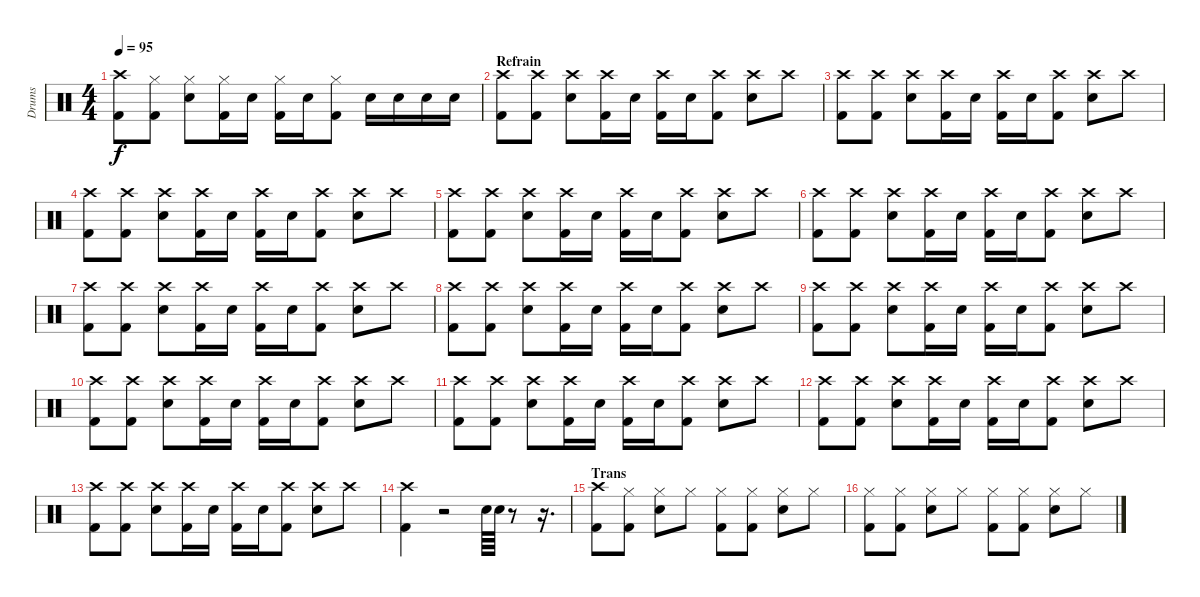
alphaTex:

\track ("Drums" "Drums") {instrument percussion}
\staff {score}
\articulation defaults
\ts (4 4)
\tempo 95
\clef neutral
\ks c
("Crash high (hit)" "Kick (hit) 2").8{dy f} ("Hi-Hat (closed)" "Kick (hit) 2").8 ("Hi-Hat (closed)" "Electric Snare (hit)").8 ("Hi-Hat (closed)" "Kick (hit) 2").16 "Electric Snare (hit)".16 ("Hi-Hat (closed)" "Kick (hit) 2").16 "Electric Snare (hit)".16 ("Hi-Hat (closed)" "Kick (hit) 2").8 "Electric Snare (hit)".16 "Electric Snare (hit)".16 "Electric Snare (hit)".16 "Electric Snare (hit)".16 |
\section ("" "Refrain")
("Crash high (hit)" "Kick (hit) 2").8 ("Crash high (hit)" "Kick (hit) 2").8 ("Crash high (hit)" "Electric Snare (hit)").8 ("Crash high (hit)" "Kick (hit) 2").16 "Electric Snare (hit)".16 ("Crash high (hit)" "Kick (hit) 2").16 "Electric Snare (hit)".16 ("Crash high (hit)" "Kick (hit) 2").8 ("Crash high (hit)" "Electric Snare (hit)").8 "Crash high (hit)".8 |
("Crash high (hit)" "Kick (hit) 2").8 ("Crash high (hit)" "Kick (hit) 2").8 ("Crash high (hit)" "Electric Snare (hit)").8 ("Crash high (hit)" "Kick (hit) 2").16 "Electric Snare (hit)".16 ("Crash high (hit)" "Kick (hit) 2").16 "Electric Snare (hit)".16 ("Crash high (hit)" "Kick (hit) 2").8 ("Crash high (hit)" "Electric Snare (hit)").8 "Crash high (hit)".8 |
("Crash high (hit)" "Kick (hit) 2").8 ("Crash high (hit)" "Kick (hit) 2").8 ("Crash high (hit)" "Electric Snare (hit)").8 ("Crash high (hit)" "Kick (hit) 2").16 "Electric Snare (hit)".16 ("Crash high (hit)" "Kick (hit) 2").16 "Electric Snare (hit)".16 ("Crash high (hit)" "Kick (hit) 2").8 ("Crash high (hit)" "Electric Snare (hit)").8 "Crash high (hit)".8 |
("Crash high (hit)" "Kick (hit) 2").8 ("Crash high (hit)" "Kick (hit) 2").8 ("Crash high (hit)" "Electric Snare (hit)").8 ("Crash high (hit)" "Kick (hit) 2").16 "Electric Snare (hit)".16 ("Crash high (hit)" "Kick (hit) 2").16 "Electric Snare (hit)".16 ("Crash high (hit)" "Kick (hit) 2").8 ("Crash high (hit)" "Electric Snare (hit)").8 "Crash high (hit)".8 |
("Crash high (hit)" "Kick (hit) 2").8 ("Crash high (hit)" "Kick (hit) 2").8 ("Crash high (hit)" "Electric Snare (hit)").8 ("Crash high (hit)" "Kick (hit) 2").16 "Electric Snare (hit)".16 ("Crash high (hit)" "Kick (hit) 2").16 "Electric Snare (hit)".16 ("Crash high (hit)" "Kick (hit) 2").8 ("Crash high (hit)" "Electric Snare (hit)").8 "Crash high (hit)".8 |
("Crash high (hit)" "Kick (hit) 2").8 ("Crash high (hit)" "Kick (hit) 2").8 ("Crash high (hit)" "Electric Snare (hit)").8 ("Crash high (hit)" "Kick (hit) 2").16 "Electric Snare (hit)".16 ("Crash high (hit)" "Kick (hit) 2").16 "Electric Snare (hit)".16 ("Crash high (hit)" "Kick (hit) 2").8 ("Crash high (hit)" "Electric Snare (hit)").8 "Crash high (hit)".8 |
("Crash high (hit)" "Kick (hit) 2").8 ("Crash high (hit)" "Kick (hit) 2").8 ("Crash high (hit)" "Electric Snare (hit)").8 ("Crash high (hit)" "Kick (hit) 2").16 "Electric Snare (hit)".16 ("Crash high (hit)" "Kick (hit) 2").16 "Electric Snare (hit)".16 ("Crash high (hit)" "Kick (hit) 2").8 ("Crash high (hit)" "Electric Snare (hit)").8 "Crash high (hit)".8 |
("Crash high (hit)" "Kick (hit) 2").8 ("Crash high (hit)" "Kick (hit) 2").8 ("Crash high (hit)" "Electric Snare (hit)").8 ("Crash high (hit)" "Kick (hit) 2").16 "Electric Snare (hit)".16 ("Crash high (hit)" "Kick (hit) 2").16 "Electric Snare (hit)".16 ("Crash high (hit)" "Kick (hit) 2").8 ("Crash high (hit)" "Electric Snare (hit)").8 "Crash high (hit)".8 |
("Crash high (hit)" "Kick (hit) 2").8 ("Crash high (hit)" "Kick (hit) 2").8 ("Crash high (hit)" "Electric Snare (hit)").8 ("Crash high (hit)" "Kick (hit) 2").16 "Electric Snare (hit)".16 ("Crash high (hit)" "Kick (hit) 2").16 "Electric Snare (hit)".16 ("Crash high (hit)" "Kick (hit) 2").8 ("Crash high (hit)" "Electric Snare (hit)").8 "Crash high (hit)".8 |
("Crash high (hit)" "Kick (hit) 2").8 ("Crash high (hit)" "Kick (hit) 2").8 ("Crash high (hit)" "Electric Snare (hit)").8 ("Crash high (hit)" "Kick (hit) 2").16 "Electric Snare (hit)".16 ("Crash high (hit)" "Kick (hit) 2").16 "Electric Snare (hit)".16 ("Crash high (hit)" "Kick (hit) 2").8 ("Crash high (hit)" "Electric Snare (hit)").8 "Crash high (hit)".8 |
("Crash high (hit)" "Kick (hit) 2").8 ("Crash high (hit)" "Kick (hit) 2").8 ("Crash high (hit)" "Electric Snare (hit)").8 ("Crash high (hit)" "Kick (hit) 2").16 "Electric Snare (hit)".16 ("Crash high (hit)" "Kick (hit) 2").16 "Electric Snare (hit)".16 ("Crash high (hit)" "Kick (hit) 2").8 ("Crash high (hit)" "Electric Snare (hit)").8 "Crash high (hit)".8 |
("Crash high (hit)" "Kick (hit) 2").8 ("Crash high (hit)" "Kick (hit) 2").8 ("Crash high (hit)" "Electric Snare (hit)").8 ("Crash high (hit)" "Kick (hit) 2").16 "Electric Snare (hit)".16 ("Crash high (hit)" "Kick (hit) 2").16 "Electric Snare (hit)".16 ("Crash high (hit)" "Kick (hit) 2").8 ("Crash high (hit)" "Electric Snare (hit)").8 "Crash high (hit)".8 |
("Crash high (hit)" "Kick (hit) 2").4 r.2 "Electric Snare (hit)".64 "Electric Snare (hit)".64 r.8 r.16{d} |
\section ("" "Trans")
("Crash high (hit)" "Kick (hit) 2").8{volume 15} ("Hi-Hat (closed)" "Kick (hit) 2").8 ("Hi-Hat (closed)" "Electric Snare (hit)").8 "Hi-Hat (closed)".8 ("Hi-Hat (closed)" "Kick (hit) 2").8 ("Hi-Hat (closed)" "Kick (hit) 2").8 ("Hi-Hat (closed)" "Electric Snare (hit)").8 "Hi-Hat (closed)".8 |
("Hi-Hat (closed)" "Kick (hit) 2").8 ("Hi-Hat (closed)" "Kick (hit) 2").8 ("Hi-Hat (closed)" "Electric Snare (hit)").8 "Hi-Hat (closed)".8 ("Hi-Hat (closed)" "Kick (hit) 2").8 ("Hi-Hat (closed)" "Kick (hit) 2").8 ("Hi-Hat (closed)" "Electric Snare (hit)").8 "Hi-Hat (closed)".8
